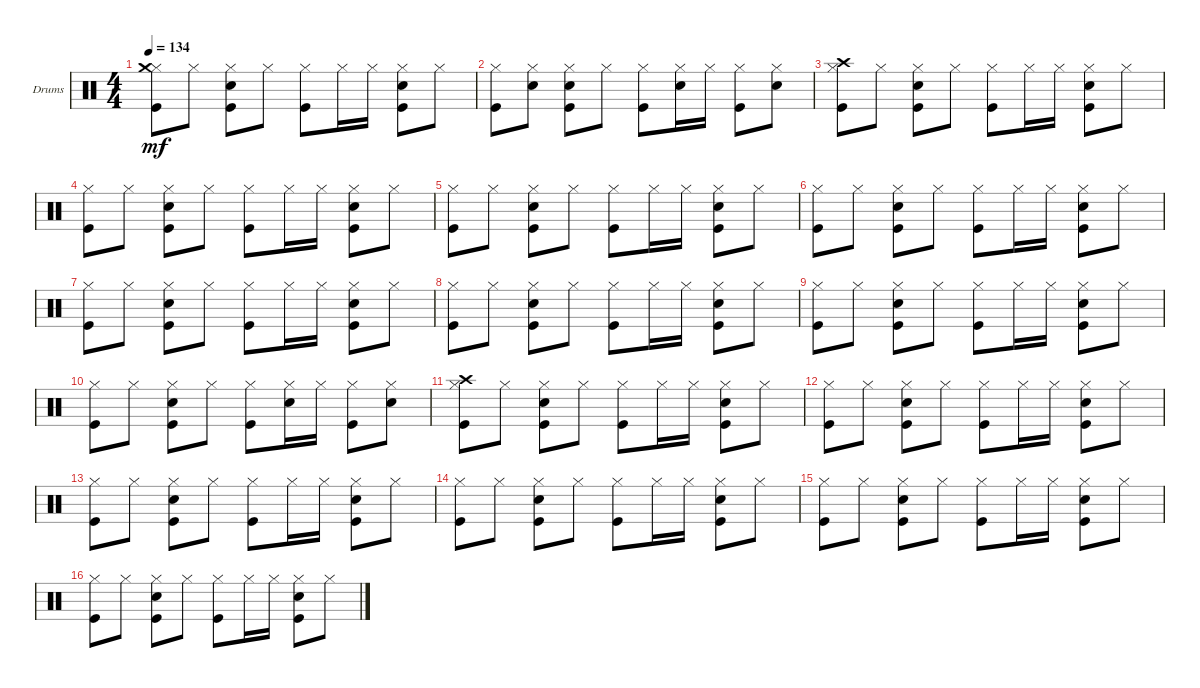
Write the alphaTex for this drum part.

\bracketExtendMode groupsimilarinstruments
\firstSystemTrackNameOrientation horizontal
\otherSystemsTrackNameOrientation horizontal
\track ("DRUMSET" "Drums") {instrument percussion}
\staff {score}
\articulation defaults
\ts (4 4)
\tempo 134
\clef neutral
\ks c
("Kick (hit)" "Hi-Hat (closed)" "Crash medium (hit)").8{dy mf} "Hi-Hat (closed)".8 ("Kick (hit)" "Snare (hit) 2" "Hi-Hat (closed)").8 "Hi-Hat (closed)".8 ("Kick (hit)" "Hi-Hat (closed)").8 "Hi-Hat (closed)".16 "Hi-Hat (closed)".16 ("Kick (hit)" "Snare (hit) 2" "Hi-Hat (closed)").8 "Hi-Hat (closed)".8 |
("Kick (hit)" "Hi-Hat (closed)").8 ("Snare (hit) 2" "Hi-Hat (closed)").8 ("Kick (hit)" "Snare (hit) 2" "Hi-Hat (closed)").8 "Hi-Hat (closed)".8 ("Kick (hit)" "Hi-Hat (closed)").8 ("Snare (hit) 2" "Hi-Hat (closed)").16 "Hi-Hat (closed)".16 ("Kick (hit)" "Hi-Hat (closed)").8 ("Snare (hit) 2" "Hi-Hat (closed)").8 |
("Kick (hit)" "Hi-Hat (closed)" "Crash high (hit)").8 "Hi-Hat (closed)".8 ("Kick (hit)" "Snare (hit) 2" "Hi-Hat (closed)").8 "Hi-Hat (closed)".8 ("Kick (hit)" "Hi-Hat (closed)").8 "Hi-Hat (closed)".16 "Hi-Hat (closed)".16 ("Kick (hit)" "Snare (hit) 2" "Hi-Hat (closed)").8 "Hi-Hat (closed)".8 |
("Kick (hit)" "Hi-Hat (closed)").8 "Hi-Hat (closed)".8 ("Kick (hit)" "Snare (hit) 2" "Hi-Hat (closed)").8 "Hi-Hat (closed)".8 ("Kick (hit)" "Hi-Hat (closed)").8 "Hi-Hat (closed)".16 "Hi-Hat (closed)".16 ("Kick (hit)" "Snare (hit) 2" "Hi-Hat (closed)").8 "Hi-Hat (closed)".8 |
("Kick (hit)" "Hi-Hat (closed)").8 "Hi-Hat (closed)".8 ("Kick (hit)" "Snare (hit) 2" "Hi-Hat (closed)").8 "Hi-Hat (closed)".8 ("Kick (hit)" "Hi-Hat (closed)").8 "Hi-Hat (closed)".16 "Hi-Hat (closed)".16 ("Kick (hit)" "Snare (hit) 2" "Hi-Hat (closed)").8 "Hi-Hat (closed)".8 |
("Kick (hit)" "Hi-Hat (closed)").8 "Hi-Hat (closed)".8 ("Kick (hit)" "Snare (hit) 2" "Hi-Hat (closed)").8 "Hi-Hat (closed)".8 ("Kick (hit)" "Hi-Hat (closed)").8 "Hi-Hat (closed)".16 "Hi-Hat (closed)".16 ("Kick (hit)" "Snare (hit) 2" "Hi-Hat (closed)").8 "Hi-Hat (closed)".8 |
("Kick (hit)" "Hi-Hat (closed)").8 "Hi-Hat (closed)".8 ("Kick (hit)" "Snare (hit) 2" "Hi-Hat (closed)").8 "Hi-Hat (closed)".8 ("Kick (hit)" "Hi-Hat (closed)").8 "Hi-Hat (closed)".16 "Hi-Hat (closed)".16 ("Kick (hit)" "Snare (hit) 2" "Hi-Hat (closed)").8 "Hi-Hat (closed)".8 |
("Kick (hit)" "Hi-Hat (closed)").8 "Hi-Hat (closed)".8 ("Kick (hit)" "Snare (hit) 2" "Hi-Hat (closed)").8 "Hi-Hat (closed)".8 ("Kick (hit)" "Hi-Hat (closed)").8 "Hi-Hat (closed)".16 "Hi-Hat (closed)".16 ("Kick (hit)" "Snare (hit) 2" "Hi-Hat (closed)").8 "Hi-Hat (closed)".8 |
("Kick (hit)" "Hi-Hat (closed)").8 "Hi-Hat (closed)".8 ("Kick (hit)" "Snare (hit) 2" "Hi-Hat (closed)").8 "Hi-Hat (closed)".8 ("Kick (hit)" "Hi-Hat (closed)").8 "Hi-Hat (closed)".16 "Hi-Hat (closed)".16 ("Kick (hit)" "Snare (hit) 2" "Hi-Hat (closed)").8 "Hi-Hat (closed)".8 |
("Kick (hit)" "Hi-Hat (closed)").8 "Hi-Hat (closed)".8 ("Kick (hit)" "Snare (hit) 2" "Hi-Hat (closed)").8 "Hi-Hat (closed)".8 ("Kick (hit)" "Hi-Hat (closed)").8 ("Snare (hit) 2" "Hi-Hat (closed)").16 "Hi-Hat (closed)".16 ("Kick (hit)" "Hi-Hat (closed)").8 ("Snare (hit) 2" "Hi-Hat (closed)").8 |
("Kick (hit)" "Hi-Hat (closed)" "Crash high (hit)").8 "Hi-Hat (closed)".8 ("Kick (hit)" "Snare (hit) 2" "Hi-Hat (closed)").8 "Hi-Hat (closed)".8 ("Kick (hit)" "Hi-Hat (closed)").8 "Hi-Hat (closed)".16 "Hi-Hat (closed)".16 ("Kick (hit)" "Snare (hit) 2" "Hi-Hat (closed)").8 "Hi-Hat (closed)".8 |
("Kick (hit)" "Hi-Hat (closed)").8 "Hi-Hat (closed)".8 ("Kick (hit)" "Snare (hit) 2" "Hi-Hat (closed)").8 "Hi-Hat (closed)".8 ("Kick (hit)" "Hi-Hat (closed)").8 "Hi-Hat (closed)".16 "Hi-Hat (closed)".16 ("Kick (hit)" "Snare (hit) 2" "Hi-Hat (closed)").8 "Hi-Hat (closed)".8 |
("Kick (hit)" "Hi-Hat (closed)").8 "Hi-Hat (closed)".8 ("Kick (hit)" "Snare (hit) 2" "Hi-Hat (closed)").8 "Hi-Hat (closed)".8 ("Kick (hit)" "Hi-Hat (closed)").8 "Hi-Hat (closed)".16 "Hi-Hat (closed)".16 ("Kick (hit)" "Snare (hit) 2" "Hi-Hat (closed)").8 "Hi-Hat (closed)".8 |
("Kick (hit)" "Hi-Hat (closed)").8 "Hi-Hat (closed)".8 ("Kick (hit)" "Snare (hit) 2" "Hi-Hat (closed)").8 "Hi-Hat (closed)".8 ("Kick (hit)" "Hi-Hat (closed)").8 "Hi-Hat (closed)".16 "Hi-Hat (closed)".16 ("Kick (hit)" "Snare (hit) 2" "Hi-Hat (closed)").8 "Hi-Hat (closed)".8 |
("Kick (hit)" "Hi-Hat (closed)").8 "Hi-Hat (closed)".8 ("Kick (hit)" "Snare (hit) 2" "Hi-Hat (closed)").8 "Hi-Hat (closed)".8 ("Kick (hit)" "Hi-Hat (closed)").8 "Hi-Hat (closed)".16 "Hi-Hat (closed)".16 ("Kick (hit)" "Snare (hit) 2" "Hi-Hat (closed)").8 "Hi-Hat (closed)".8 |
("Kick (hit)" "Hi-Hat (closed)").8 "Hi-Hat (closed)".8 ("Kick (hit)" "Snare (hit) 2" "Hi-Hat (closed)").8 "Hi-Hat (closed)".8 ("Kick (hit)" "Hi-Hat (closed)").8 "Hi-Hat (closed)".16 "Hi-Hat (closed)".16 ("Kick (hit)" "Snare (hit) 2" "Hi-Hat (closed)").8 "Hi-Hat (closed)".8
